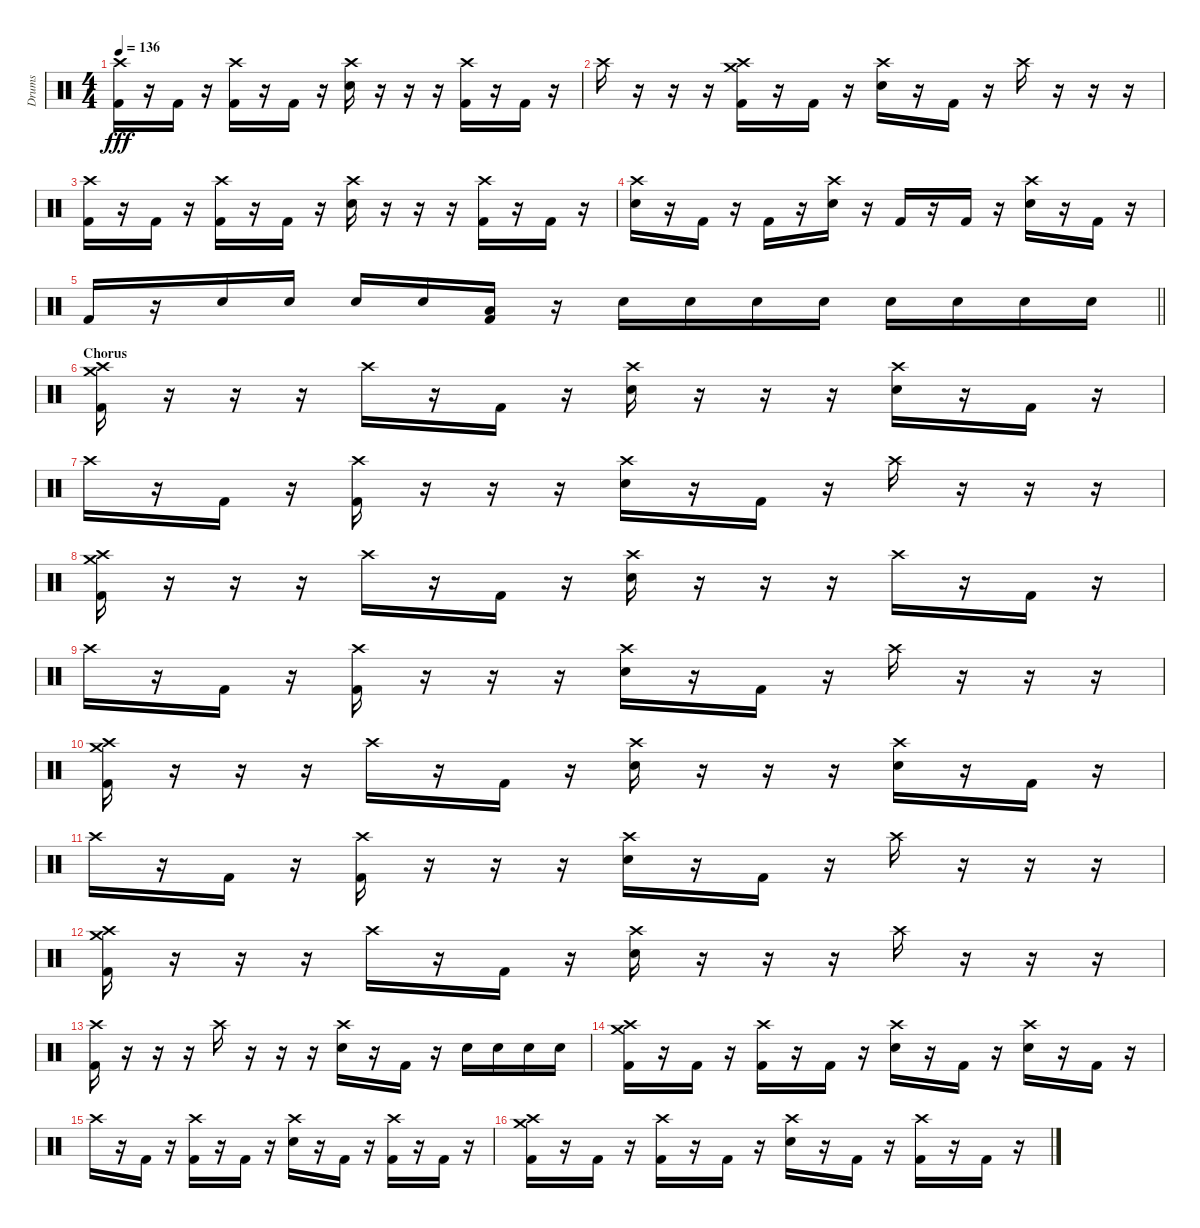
\track ("Drums" "Drums") {instrument percussion}
\staff {score}
\articulation defaults
\ts (4 4)
\tempo 136
\clef neutral
\ks c
("Crash high (hit)" "Kick (hit) 2").16{dy fff} r.16 "Kick (hit) 2".16 r.16 ("Crash high (hit)" "Kick (hit) 2").16 r.16 "Kick (hit) 2".16 r.16 ("Crash high (hit)" "Electric Snare (hit)").16 r.16 r.16 r.16 ("Crash high (hit)" "Kick (hit) 2").16 r.16 "Kick (hit) 2".16 r.16 |
"Crash high (hit)".16 r.16 r.16 r.16 ("Crash medium (hit)" "Crash high (hit)" "Kick (hit) 2").16 r.16 "Kick (hit) 2".16 r.16 ("Crash high (hit)" "Electric Snare (hit)").16 r.16 "Kick (hit) 2".16 r.16 "Crash high (hit)".16 r.16 r.16 r.16 |
("Crash high (hit)" "Kick (hit) 2").16 r.16 "Kick (hit) 2".16 r.16 ("Crash high (hit)" "Kick (hit) 2").16 r.16 "Kick (hit) 2".16 r.16 ("Crash high (hit)" "Electric Snare (hit)").16 r.16 r.16 r.16 ("Crash high (hit)" "Kick (hit) 2").16 r.16 "Kick (hit) 2".16 r.16 |
("Crash high (hit)" "Electric Snare (hit)").16 r.16 "Kick (hit) 2".16 r.16 "Kick (hit) 2".16 r.16 ("Crash high (hit)" "Electric Snare (hit)").16 r.16 "Kick (hit) 2".16 r.16 "Kick (hit) 2".16 r.16 ("Crash high (hit)" "Electric Snare (hit)").16 r.16 "Kick (hit) 2".16 r.16 |
\barLineRight lightlight "Kick (hit) 2".16
r.16 "Electric Snare (hit)".16 "Electric Snare (hit)".16 "Electric Snare (hit)".16 "Electric Snare (hit)".16 ("Low Floor Tom (hit)" "Kick (hit) 2").16 r.16 "Electric Snare (hit)".16 "Electric Snare (hit)".16 "Electric Snare (hit)".16 "Electric Snare (hit)".16 "Electric Snare (hit)".16 "Electric Snare (hit)".16 "Electric Snare (hit)".16 "Electric Snare (hit)".16 |
\section ("" "Chorus")
("Crash medium (hit)" "Crash high (hit)" "Kick (hit) 2").16 r.16 r.16 r.16 "Crash high (hit)".16 r.16 "Kick (hit) 2".16 r.16 ("Crash high (hit)" "Electric Snare (hit)").16 r.16 r.16 r.16 ("Crash high (hit)" "Electric Snare (hit)").16 r.16 "Kick (hit) 2".16 r.16 |
"Crash high (hit)".16 r.16 "Kick (hit) 2".16 r.16 ("Crash high (hit)" "Kick (hit) 2").16 r.16 r.16 r.16 ("Crash high (hit)" "Electric Snare (hit)").16 r.16 "Kick (hit) 2".16 r.16 "Crash high (hit)".16 r.16 r.16 r.16 |
("Crash medium (hit)" "Crash high (hit)" "Kick (hit) 2").16 r.16 r.16 r.16 "Crash high (hit)".16 r.16 "Kick (hit) 2".16 r.16 ("Crash high (hit)" "Electric Snare (hit)").16 r.16 r.16 r.16 "Crash high (hit)".16 r.16 "Kick (hit) 2".16 r.16 |
"Crash high (hit)".16 r.16 "Kick (hit) 2".16 r.16 ("Crash high (hit)" "Kick (hit) 2").16 r.16 r.16 r.16 ("Crash high (hit)" "Electric Snare (hit)").16 r.16 "Kick (hit) 2".16 r.16 "Crash high (hit)".16 r.16 r.16 r.16 |
("Crash medium (hit)" "Crash high (hit)" "Kick (hit) 2").16 r.16 r.16 r.16 "Crash high (hit)".16 r.16 "Kick (hit) 2".16 r.16 ("Crash high (hit)" "Electric Snare (hit)").16 r.16 r.16 r.16 ("Crash high (hit)" "Electric Snare (hit)").16 r.16 "Kick (hit) 2".16 r.16 |
"Crash high (hit)".16 r.16 "Kick (hit) 2".16 r.16 ("Crash high (hit)" "Kick (hit) 2").16 r.16 r.16 r.16 ("Crash high (hit)" "Electric Snare (hit)").16 r.16 "Kick (hit) 2".16 r.16 "Crash high (hit)".16 r.16 r.16 r.16 |
("Crash medium (hit)" "Crash high (hit)" "Kick (hit) 2").16 r.16 r.16 r.16 "Crash high (hit)".16 r.16 "Kick (hit) 2".16 r.16 ("Crash high (hit)" "Electric Snare (hit)").16 r.16 r.16 r.16 "Crash high (hit)".16 r.16 r.16 r.16 |
("Crash high (hit)" "Kick (hit) 2").16 r.16 r.16 r.16 "Crash high (hit)".16 r.16 r.16 r.16 ("Crash high (hit)" "Electric Snare (hit)").16 r.16 "Kick (hit) 2".16 r.16 "Electric Snare (hit)".16 "Electric Snare (hit)".16 "Electric Snare (hit)".16 "Electric Snare (hit)".16 |
("Crash medium (hit)" "Crash high (hit)" "Kick (hit) 2").16 r.16 "Kick (hit) 2".16 r.16 ("Crash high (hit)" "Kick (hit) 2").16 r.16 "Kick (hit) 2".16 r.16 ("Crash high (hit)" "Electric Snare (hit)").16 r.16 "Kick (hit) 2".16 r.16 ("Crash high (hit)" "Electric Snare (hit)").16 r.16 "Kick (hit) 2".16 r.16 |
"Crash high (hit)".16 r.16 "Kick (hit) 2".16 r.16 ("Crash high (hit)" "Kick (hit) 2").16 r.16 "Kick (hit) 2".16 r.16 ("Crash high (hit)" "Electric Snare (hit)").16 r.16 "Kick (hit) 2".16 r.16 ("Crash high (hit)" "Kick (hit) 2").16 r.16 "Kick (hit) 2".16 r.16 |
("Crash medium (hit)" "Crash high (hit)" "Kick (hit) 2").16 r.16 "Kick (hit) 2".16 r.16 ("Crash high (hit)" "Kick (hit) 2").16 r.16 "Kick (hit) 2".16 r.16 ("Crash high (hit)" "Electric Snare (hit)").16 r.16 "Kick (hit) 2".16 r.16 ("Crash high (hit)" "Kick (hit) 2").16 r.16 "Kick (hit) 2".16 r.16
